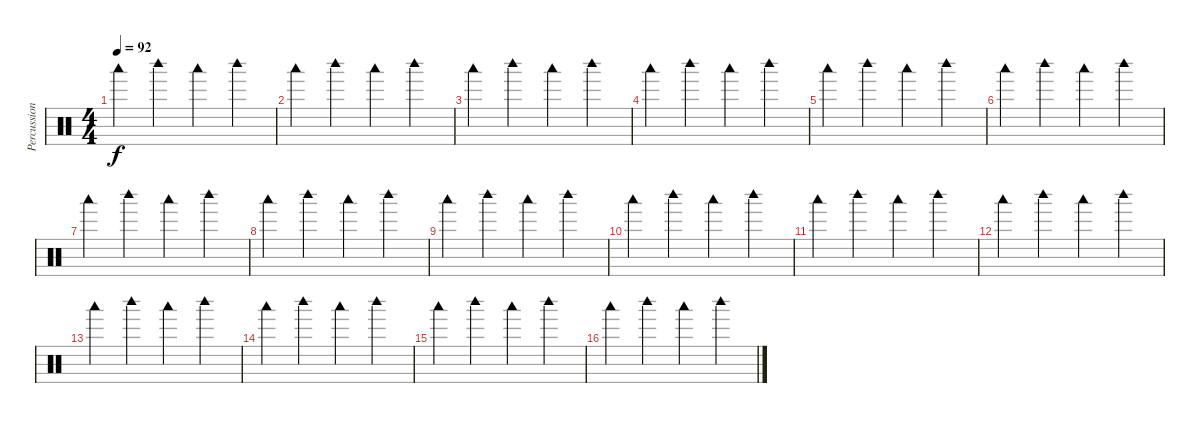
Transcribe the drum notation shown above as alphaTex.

\track ("Percussioni" "Percussion") {instrument percussion}
\staff {score}
\articulation defaults
\ts (4 4)
\tempo 92
\clef neutral
\ks c "Woodblock low (hit)".4{dy f} "Woodblock high (hit)".4 "Woodblock low (hit)".4 "Woodblock high (hit)".4
|
"Woodblock low (hit)".4 "Woodblock high (hit)".4 "Woodblock low (hit)".4 "Woodblock high (hit)".4 |
"Woodblock low (hit)".4 "Woodblock high (hit)".4 "Woodblock low (hit)".4 "Woodblock high (hit)".4 |
"Woodblock low (hit)".4 "Woodblock high (hit)".4 "Woodblock low (hit)".4 "Woodblock high (hit)".4 |
"Woodblock low (hit)".4 "Woodblock high (hit)".4 "Woodblock low (hit)".4 "Woodblock high (hit)".4 |
"Woodblock low (hit)".4 "Woodblock high (hit)".4 "Woodblock low (hit)".4 "Woodblock high (hit)".4 |
"Woodblock low (hit)".4 "Woodblock high (hit)".4 "Woodblock low (hit)".4 "Woodblock high (hit)".4 |
"Woodblock low (hit)".4 "Woodblock high (hit)".4 "Woodblock low (hit)".4 "Woodblock high (hit)".4 |
"Woodblock low (hit)".4 "Woodblock high (hit)".4 "Woodblock low (hit)".4 "Woodblock high (hit)".4 |
"Woodblock low (hit)".4 "Woodblock high (hit)".4 "Woodblock low (hit)".4 "Woodblock high (hit)".4 |
"Woodblock low (hit)".4 "Woodblock high (hit)".4 "Woodblock low (hit)".4 "Woodblock high (hit)".4 |
"Woodblock low (hit)".4 "Woodblock high (hit)".4 "Woodblock low (hit)".4 "Woodblock high (hit)".4 |
"Woodblock low (hit)".4 "Woodblock high (hit)".4 "Woodblock low (hit)".4 "Woodblock high (hit)".4 |
"Woodblock low (hit)".4 "Woodblock high (hit)".4 "Woodblock low (hit)".4 "Woodblock high (hit)".4 |
"Woodblock low (hit)".4 "Woodblock high (hit)".4 "Woodblock low (hit)".4 "Woodblock high (hit)".4 |
"Woodblock low (hit)".4 "Woodblock high (hit)".4 "Woodblock low (hit)".4 "Woodblock high (hit)".4
